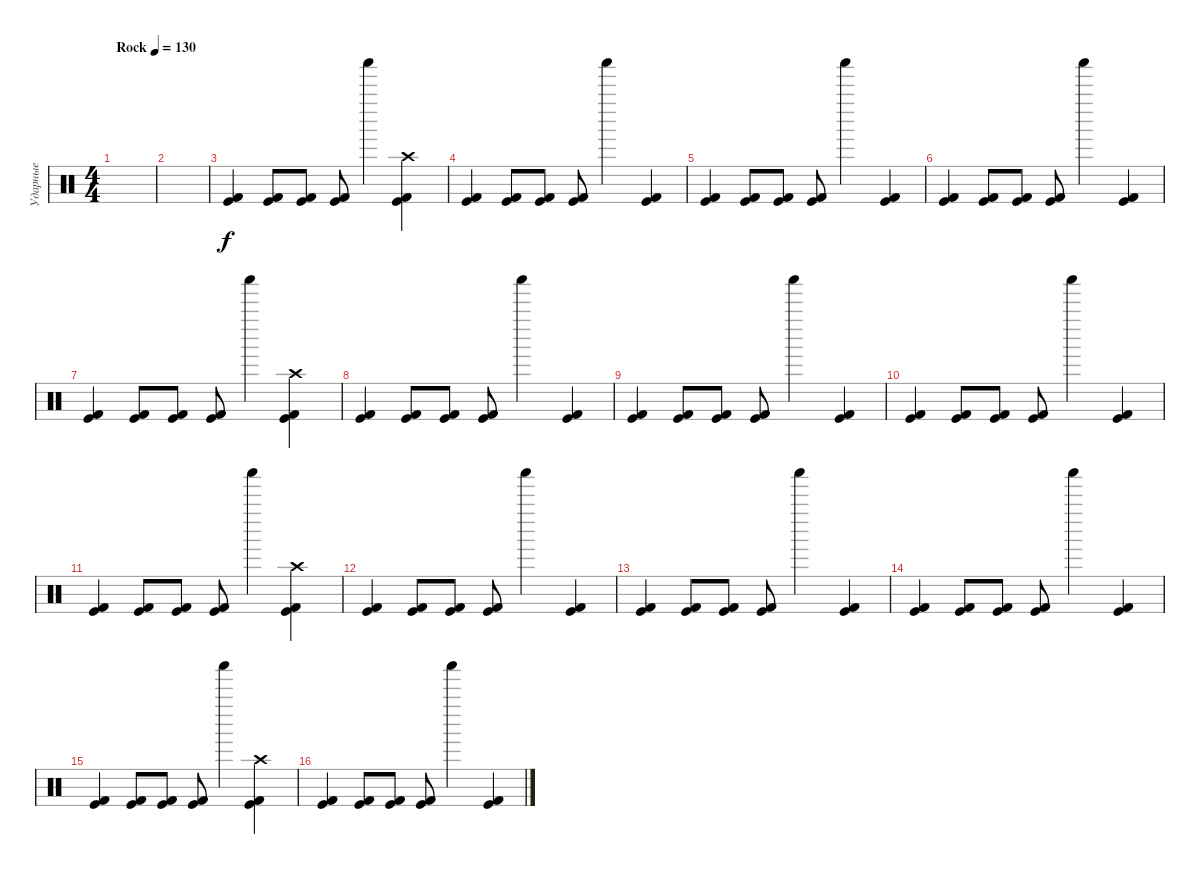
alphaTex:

\track ("Ударные" "Ударные") {instrument percussion}
\staff {score}
\articulation defaults
\ts (4 4)
\tempo (130 "Rock")
\clef neutral
\ks c
|
|
("Kick (hit)" "Kick (hit) 2").4 ("Kick (hit)" "Kick (hit) 2").8 ("Kick (hit)" "Kick (hit) 2").8 ("Kick (hit)" "Kick (hit) 2").8 "Shaker (hit)".4 ("Kick (hit)" "Kick (hit) 2" "Crash high (hit)").4 |
("Kick (hit)" "Kick (hit) 2").4 ("Kick (hit)" "Kick (hit) 2").8 ("Kick (hit)" "Kick (hit) 2").8 ("Kick (hit)" "Kick (hit) 2").8 "Shaker (hit)".4 ("Kick (hit)" "Kick (hit) 2").4 |
("Kick (hit)" "Kick (hit) 2").4 ("Kick (hit)" "Kick (hit) 2").8 ("Kick (hit)" "Kick (hit) 2").8 ("Kick (hit)" "Kick (hit) 2").8 "Shaker (hit)".4 ("Kick (hit)" "Kick (hit) 2").4 |
("Kick (hit)" "Kick (hit) 2").4 ("Kick (hit)" "Kick (hit) 2").8 ("Kick (hit)" "Kick (hit) 2").8 ("Kick (hit)" "Kick (hit) 2").8 "Shaker (hit)".4 ("Kick (hit)" "Kick (hit) 2").4 |
("Kick (hit)" "Kick (hit) 2").4 ("Kick (hit)" "Kick (hit) 2").8 ("Kick (hit)" "Kick (hit) 2").8 ("Kick (hit)" "Kick (hit) 2").8 "Shaker (hit)".4 ("Kick (hit)" "Kick (hit) 2" "Crash high (hit)").4 |
("Kick (hit)" "Kick (hit) 2").4 ("Kick (hit)" "Kick (hit) 2").8 ("Kick (hit)" "Kick (hit) 2").8 ("Kick (hit)" "Kick (hit) 2").8 "Shaker (hit)".4 ("Kick (hit)" "Kick (hit) 2").4 |
("Kick (hit)" "Kick (hit) 2").4 ("Kick (hit)" "Kick (hit) 2").8 ("Kick (hit)" "Kick (hit) 2").8 ("Kick (hit)" "Kick (hit) 2").8 "Shaker (hit)".4 ("Kick (hit)" "Kick (hit) 2").4 |
("Kick (hit)" "Kick (hit) 2").4 ("Kick (hit)" "Kick (hit) 2").8 ("Kick (hit)" "Kick (hit) 2").8 ("Kick (hit)" "Kick (hit) 2").8 "Shaker (hit)".4 ("Kick (hit)" "Kick (hit) 2").4 |
("Kick (hit)" "Kick (hit) 2").4 ("Kick (hit)" "Kick (hit) 2").8 ("Kick (hit)" "Kick (hit) 2").8 ("Kick (hit)" "Kick (hit) 2").8 "Shaker (hit)".4 ("Kick (hit)" "Kick (hit) 2" "Crash high (hit)").4 |
("Kick (hit)" "Kick (hit) 2").4 ("Kick (hit)" "Kick (hit) 2").8 ("Kick (hit)" "Kick (hit) 2").8 ("Kick (hit)" "Kick (hit) 2").8 "Shaker (hit)".4 ("Kick (hit)" "Kick (hit) 2").4 |
("Kick (hit)" "Kick (hit) 2").4 ("Kick (hit)" "Kick (hit) 2").8 ("Kick (hit)" "Kick (hit) 2").8 ("Kick (hit)" "Kick (hit) 2").8 "Shaker (hit)".4 ("Kick (hit)" "Kick (hit) 2").4 |
("Kick (hit)" "Kick (hit) 2").4 ("Kick (hit)" "Kick (hit) 2").8 ("Kick (hit)" "Kick (hit) 2").8 ("Kick (hit)" "Kick (hit) 2").8 "Shaker (hit)".4 ("Kick (hit)" "Kick (hit) 2").4 |
("Kick (hit)" "Kick (hit) 2").4 ("Kick (hit)" "Kick (hit) 2").8 ("Kick (hit)" "Kick (hit) 2").8 ("Kick (hit)" "Kick (hit) 2").8 "Shaker (hit)".4 ("Kick (hit)" "Kick (hit) 2" "Crash high (hit)").4 |
("Kick (hit)" "Kick (hit) 2").4 ("Kick (hit)" "Kick (hit) 2").8 ("Kick (hit)" "Kick (hit) 2").8 ("Kick (hit)" "Kick (hit) 2").8 "Shaker (hit)".4 ("Kick (hit)" "Kick (hit) 2").4
